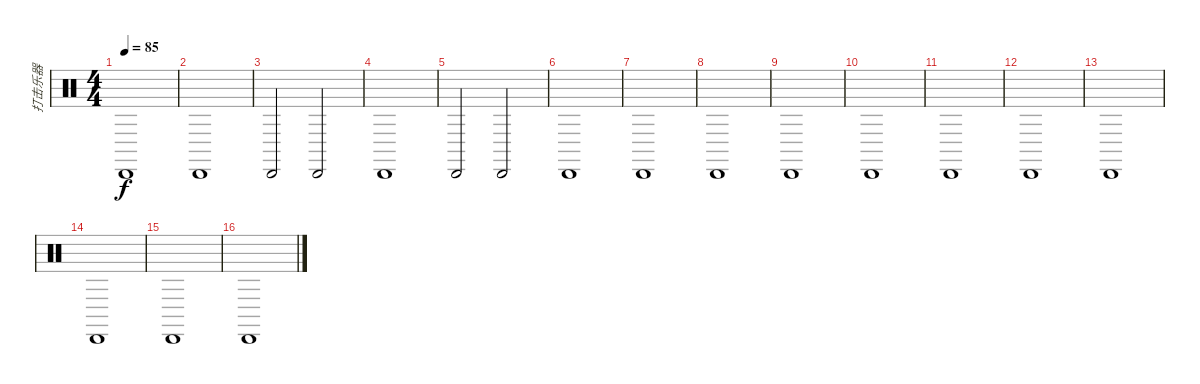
\track ("打击乐器" "打击乐器") {instrument percussion}
\staff {score}
\articulation defaults
\ts (4 4)
\tempo 85
\clef neutral
\ks c "Cabasa (hit)".1{dy f}
|
"Cabasa (hit)".1 |
"Cabasa (hit)".2 "Cabasa (hit)".2 |
"Cabasa (hit)".1 |
"Cabasa (hit)".2 "Cabasa (hit)".2 |
"Cabasa (hit)".1 |
"Cabasa (hit)".1 |
"Cabasa (hit)".1 |
"Cabasa (hit)".1 |
"Cabasa (hit)".1 |
"Cabasa (hit)".1 |
"Cabasa (hit)".1 |
"Cabasa (hit)".1 |
"Cabasa (hit)".1 |
"Cabasa (hit)".1 |
"Cabasa (hit)".1
